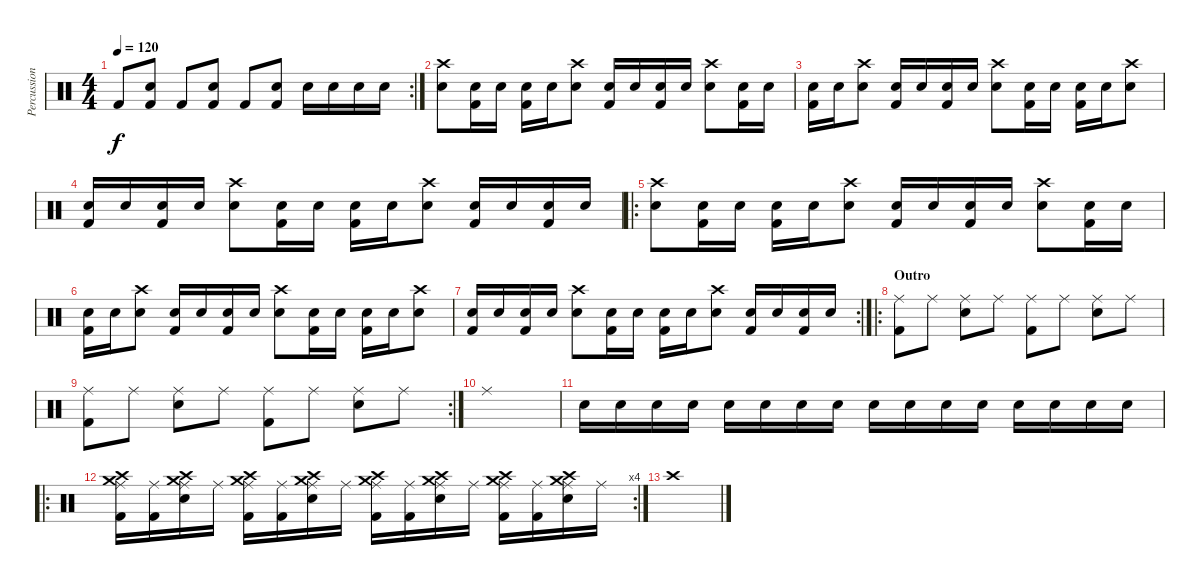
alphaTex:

\track ("Percussion" "Percussion") {instrument percussion}
\staff {score}
\articulation defaults
\rc 2
\ts (4 4)
\tempo 120
\clef neutral
\ks c "Kick (hit) 2".8{dy f}
("Snare (hit) 2" "Kick (hit) 2").8 "Kick (hit) 2".8 ("Snare (hit) 2" "Kick (hit) 2").8 "Kick (hit) 2".8 ("Snare (hit) 2" "Kick (hit) 2").8 "Snare (hit) 2".16 "Snare (hit) 2".16 "Snare (hit) 2".16 "Snare (hit) 2".16 |
("Crash high (hit)" "Snare (hit) 2").8 ("Snare (hit) 2" "Kick (hit) 2").16 "Snare (hit) 2".16 ("Snare (hit) 2" "Kick (hit) 2").16 "Snare (hit) 2".16 ("Crash high (hit)" "Snare (hit) 2").8 ("Snare (hit) 2" "Kick (hit) 2").16 "Snare (hit) 2".16 ("Snare (hit) 2" "Kick (hit) 2").16 "Snare (hit) 2".16 ("Crash high (hit)" "Snare (hit) 2").8 ("Snare (hit) 2" "Kick (hit) 2").16 "Snare (hit) 2".16 |
("Snare (hit) 2" "Kick (hit) 2").16 "Snare (hit) 2".16 ("Crash high (hit)" "Snare (hit) 2").8 ("Snare (hit) 2" "Kick (hit) 2").16 "Snare (hit) 2".16 ("Snare (hit) 2" "Kick (hit) 2").16 "Snare (hit) 2".16 ("Crash high (hit)" "Snare (hit) 2").8 ("Snare (hit) 2" "Kick (hit) 2").16 "Snare (hit) 2".16 ("Snare (hit) 2" "Kick (hit) 2").16 "Snare (hit) 2".16 ("Crash high (hit)" "Snare (hit) 2").8 |
("Snare (hit) 2" "Kick (hit) 2").16 "Snare (hit) 2".16 ("Snare (hit) 2" "Kick (hit) 2").16 "Snare (hit) 2".16 ("Crash high (hit)" "Snare (hit) 2").8 ("Snare (hit) 2" "Kick (hit) 2").16 "Snare (hit) 2".16 ("Snare (hit) 2" "Kick (hit) 2").16 "Snare (hit) 2".16 ("Crash high (hit)" "Snare (hit) 2").8 ("Snare (hit) 2" "Kick (hit) 2").16 "Snare (hit) 2".16 ("Snare (hit) 2" "Kick (hit) 2").16 "Snare (hit) 2".16 |
\ro
("Crash high (hit)" "Snare (hit) 2").8 ("Snare (hit) 2" "Kick (hit) 2").16 "Snare (hit) 2".16 ("Snare (hit) 2" "Kick (hit) 2").16 "Snare (hit) 2".16 ("Crash high (hit)" "Snare (hit) 2").8 ("Snare (hit) 2" "Kick (hit) 2").16 "Snare (hit) 2".16 ("Snare (hit) 2" "Kick (hit) 2").16 "Snare (hit) 2".16 ("Crash high (hit)" "Snare (hit) 2").8 ("Snare (hit) 2" "Kick (hit) 2").16 "Snare (hit) 2".16 |
("Snare (hit) 2" "Kick (hit) 2").16 "Snare (hit) 2".16 ("Crash high (hit)" "Snare (hit) 2").8 ("Snare (hit) 2" "Kick (hit) 2").16 "Snare (hit) 2".16 ("Snare (hit) 2" "Kick (hit) 2").16 "Snare (hit) 2".16 ("Crash high (hit)" "Snare (hit) 2").8 ("Snare (hit) 2" "Kick (hit) 2").16 "Snare (hit) 2".16 ("Snare (hit) 2" "Kick (hit) 2").16 "Snare (hit) 2".16 ("Crash high (hit)" "Snare (hit) 2").8 |
\rc 2
("Snare (hit) 2" "Kick (hit) 2").16 "Snare (hit) 2".16 ("Snare (hit) 2" "Kick (hit) 2").16 "Snare (hit) 2".16 ("Crash high (hit)" "Snare (hit) 2").8 ("Snare (hit) 2" "Kick (hit) 2").16 "Snare (hit) 2".16 ("Snare (hit) 2" "Kick (hit) 2").16 "Snare (hit) 2".16 ("Crash high (hit)" "Snare (hit) 2").8 ("Snare (hit) 2" "Kick (hit) 2").16 "Snare (hit) 2".16 ("Snare (hit) 2" "Kick (hit) 2").16 "Snare (hit) 2".16 |
\ro
\section ("" "Outro")
("Kick (hit) 2" "Ride (middle)").8 "Ride (middle)".8 ("Electric Snare (hit)" "Ride (middle)").8 "Ride (middle)".8 ("Kick (hit) 2" "Ride (middle)").8 "Ride (middle)".8 ("Electric Snare (hit)" "Ride (middle)").8 "Ride (middle)".8 |
\rc 2
("Kick (hit) 2" "Ride (middle)").8 "Ride (middle)".8 ("Electric Snare (hit)" "Ride (middle)").8 "Ride (middle)".8 ("Kick (hit) 2" "Ride (middle)").8 "Ride (middle)".8 ("Electric Snare (hit)" "Ride (middle)").8 "Ride (middle)".8 |
"Ride (middle)".1 |
"Electric Snare (hit)".16 "Electric Snare (hit)".16 "Electric Snare (hit)".16 "Electric Snare (hit)".16 "Electric Snare (hit)".16 "Electric Snare (hit)".16 "Electric Snare (hit)".16 "Electric Snare (hit)".16 "Electric Snare (hit)".16 "Electric Snare (hit)".16 "Electric Snare (hit)".16 "Electric Snare (hit)".16 "Electric Snare (hit)".16 "Electric Snare (hit)".16 "Electric Snare (hit)".16 "Electric Snare (hit)".16 |
\ro
\rc 4
("Ride (middle)" "Crash medium (hit)" "Crash high (hit)" "Kick (hit) 2").16 ("Ride (middle)" "Kick (hit) 2").16 ("Ride (middle)" "Crash medium (hit)" "Crash high (hit)" "Electric Snare (hit)").16 "Ride (middle)".16 ("Ride (middle)" "Crash medium (hit)" "Crash high (hit)" "Kick (hit) 2").16 ("Ride (middle)" "Kick (hit) 2").16 ("Ride (middle)" "Crash medium (hit)" "Crash high (hit)" "Electric Snare (hit)").16 "Ride (middle)".16 ("Ride (middle)" "Crash medium (hit)" "Crash high (hit)" "Kick (hit) 2").16 ("Ride (middle)" "Kick (hit) 2").16 ("Ride (middle)" "Crash medium (hit)" "Crash high (hit)" "Electric Snare (hit)").16 "Ride (middle)".16 ("Ride (middle)" "Crash medium (hit)" "Crash high (hit)" "Kick (hit) 2").16 ("Ride (middle)" "Kick (hit) 2").16 ("Ride (middle)" "Crash medium (hit)" "Crash high (hit)" "Electric Snare (hit)").16 "Ride (middle)".16 |
"Crash high (hit)".1
